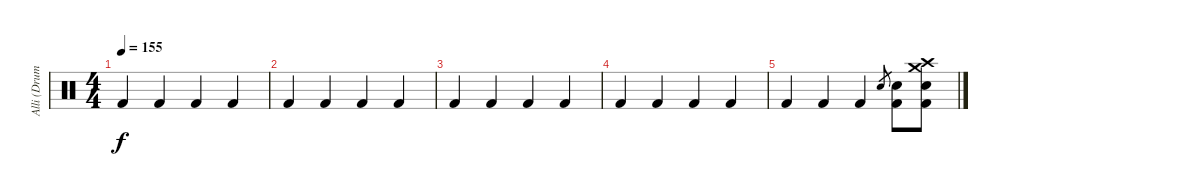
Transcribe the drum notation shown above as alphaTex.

\track ("Alli (Drums)" "Alli (Drum") {instrument percussion}
\staff {score}
\articulation defaults
\ts (4 4)
\tempo 155
\clef neutral
\ks c "Kick (hit) 2".4{dy f} "Kick (hit) 2".4 "Kick (hit) 2".4 "Kick (hit) 2".4
|
"Kick (hit) 2".4 "Kick (hit) 2".4 "Kick (hit) 2".4 "Kick (hit) 2".4 |
"Kick (hit) 2".4 "Kick (hit) 2".4 "Kick (hit) 2".4 "Kick (hit) 2".4 |
"Kick (hit) 2".4 "Kick (hit) 2".4 "Kick (hit) 2".4 "Kick (hit) 2".4 |
"Kick (hit) 2".4 "Kick (hit) 2".4 "Kick (hit) 2".4 "Electric Snare (hit)".8{gr} ("Electric Snare (hit)" "Kick (hit) 2").8 ("Crash medium (hit)" "Crash high (hit)" "Electric Snare (hit)" "Kick (hit) 2").8
